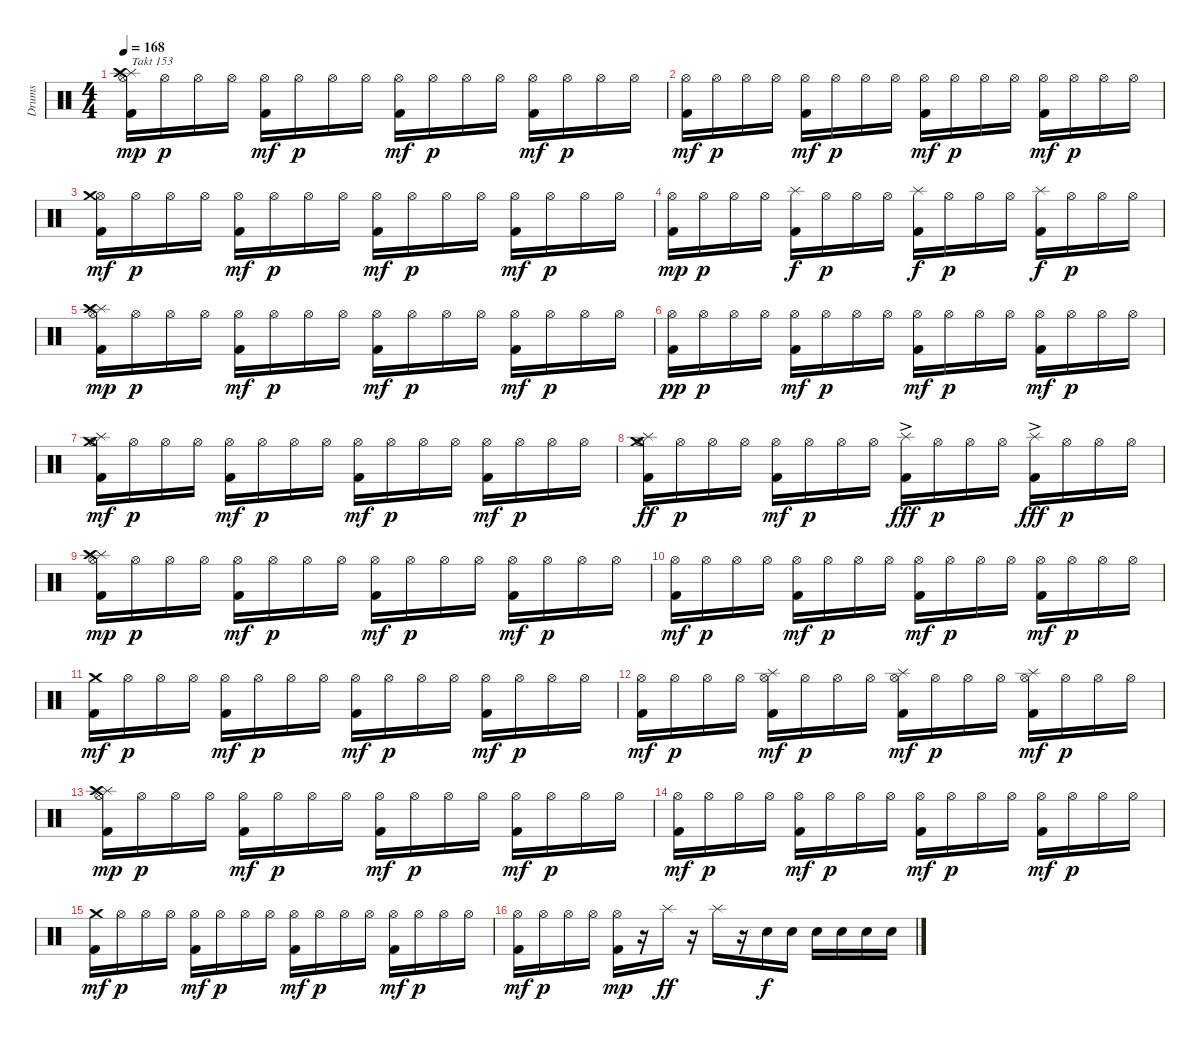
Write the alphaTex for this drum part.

\track ("Drums" "Drums") {instrument percussion}
\staff {score}
\articulation defaults
\ts (4 4)
\tempo 168
\clef neutral
\ks c
("Kick (hit) 2" "Hi-Hat (open)" "Splash (hit)" "Crash high (hit)").16{txt "Takt 153" dy mp} "Hi-Hat (open)".16{dy p} "Hi-Hat (open)".16 "Hi-Hat (open)".16 ("Kick (hit) 2" "Hi-Hat (open)").16{dy mf} "Hi-Hat (open)".16{dy p} "Hi-Hat (open)".16 "Hi-Hat (open)".16 ("Kick (hit) 2" "Hi-Hat (open)").16{dy mf} "Hi-Hat (open)".16{dy p} "Hi-Hat (open)".16 "Hi-Hat (open)".16 ("Kick (hit) 2" "Hi-Hat (open)").16{dy mf} "Hi-Hat (open)".16{dy p} "Hi-Hat (open)".16 "Hi-Hat (open)".16 |
("Kick (hit) 2" "Hi-Hat (open)").16{dy mf} "Hi-Hat (open)".16{dy p} "Hi-Hat (open)".16 "Hi-Hat (open)".16 ("Kick (hit) 2" "Hi-Hat (open)").16{dy mf} "Hi-Hat (open)".16{dy p} "Hi-Hat (open)".16 "Hi-Hat (open)".16 ("Kick (hit) 2" "Hi-Hat (open)").16{dy mf} "Hi-Hat (open)".16{dy p} "Hi-Hat (open)".16 "Hi-Hat (open)".16 ("Kick (hit) 2" "Hi-Hat (open)").16{dy mf} "Hi-Hat (open)".16{dy p} "Hi-Hat (open)".16 "Hi-Hat (open)".16 |
("Kick (hit) 2" "Hi-Hat (open)" "Crash medium (hit)").16{dy mf} "Hi-Hat (open)".16{dy p} "Hi-Hat (open)".16 "Hi-Hat (open)".16 ("Kick (hit) 2" "Hi-Hat (open)").16{dy mf} "Hi-Hat (open)".16{dy p} "Hi-Hat (open)".16 "Hi-Hat (open)".16 ("Kick (hit) 2" "Hi-Hat (open)").16{dy mf} "Hi-Hat (open)".16{dy p} "Hi-Hat (open)".16 "Hi-Hat (open)".16 ("Kick (hit) 2" "Hi-Hat (open)").16{dy mf} "Hi-Hat (open)".16{dy p} "Hi-Hat (open)".16 "Hi-Hat (open)".16 |
("Kick (hit) 2" "Hi-Hat (open)").16{dy mp} "Hi-Hat (open)".16{dy p} "Hi-Hat (open)".16 "Hi-Hat (open)".16 ("Kick (hit) 2" "Splash (hit)").16{dy f} "Hi-Hat (open)".16{dy p} "Hi-Hat (open)".16 "Hi-Hat (open)".16 ("Kick (hit) 2" "Splash (hit)").16{dy f} "Hi-Hat (open)".16{dy p} "Hi-Hat (open)".16 "Hi-Hat (open)".16 ("Kick (hit) 2" "Splash (hit)").16{dy f} "Hi-Hat (open)".16{dy p} "Hi-Hat (open)".16 "Hi-Hat (open)".16 |
("Kick (hit) 2" "Hi-Hat (open)" "Splash (hit)" "Crash high (hit)").16{dy mp} "Hi-Hat (open)".16{dy p} "Hi-Hat (open)".16 "Hi-Hat (open)".16 ("Kick (hit) 2" "Hi-Hat (open)").16{dy mf} "Hi-Hat (open)".16{dy p} "Hi-Hat (open)".16 "Hi-Hat (open)".16 ("Kick (hit) 2" "Hi-Hat (open)").16{dy mf} "Hi-Hat (open)".16{dy p} "Hi-Hat (open)".16 "Hi-Hat (open)".16 ("Kick (hit) 2" "Hi-Hat (open)").16{dy mf} "Hi-Hat (open)".16{dy p} "Hi-Hat (open)".16 "Hi-Hat (open)".16 |
("Kick (hit) 2" "Hi-Hat (open)").16{dy pp} "Hi-Hat (open)".16{dy p} "Hi-Hat (open)".16 "Hi-Hat (open)".16 ("Kick (hit) 2" "Hi-Hat (open)").16{dy mf} "Hi-Hat (open)".16{dy p} "Hi-Hat (open)".16 "Hi-Hat (open)".16 ("Kick (hit) 2" "Hi-Hat (open)").16{dy mf} "Hi-Hat (open)".16{dy p} "Hi-Hat (open)".16 "Hi-Hat (open)".16 ("Kick (hit) 2" "Hi-Hat (open)").16{dy mf} "Hi-Hat (open)".16{dy p} "Hi-Hat (open)".16 "Hi-Hat (open)".16 |
("Kick (hit) 2" "Hi-Hat (open)" "Splash (hit)" "Crash medium (hit)").16{dy mf} "Hi-Hat (open)".16{dy p} "Hi-Hat (open)".16 "Hi-Hat (open)".16 ("Kick (hit) 2" "Hi-Hat (open)").16{dy mf} "Hi-Hat (open)".16{dy p} "Hi-Hat (open)".16 "Hi-Hat (open)".16 ("Kick (hit) 2" "Hi-Hat (open)").16{dy mf} "Hi-Hat (open)".16{dy p} "Hi-Hat (open)".16 "Hi-Hat (open)".16 ("Kick (hit) 2" "Hi-Hat (open)").16{dy mf} "Hi-Hat (open)".16{dy p} "Hi-Hat (open)".16 "Hi-Hat (open)".16 |
("Kick (hit) 2" "Hi-Hat (open)" "Splash (hit)" "Crash medium (hit)").16{dy ff} "Hi-Hat (open)".16{dy p} "Hi-Hat (open)".16 "Hi-Hat (open)".16 ("Kick (hit) 2" "Hi-Hat (open)").16{dy mf} "Hi-Hat (open)".16{dy p} "Hi-Hat (open)".16 "Hi-Hat (open)".16 ("Kick (hit) 2" "Splash (hit)"{ac}).16{dy fff} "Hi-Hat (open)".16{dy p} "Hi-Hat (open)".16 "Hi-Hat (open)".16 ("Kick (hit) 2" "Splash (hit)"{ac}).16{dy fff} "Hi-Hat (open)".16{dy p} "Hi-Hat (open)".16 "Hi-Hat (open)".16 |
("Kick (hit) 2" "Hi-Hat (open)" "Splash (hit)" "Crash high (hit)").16{dy mp} "Hi-Hat (open)".16{dy p} "Hi-Hat (open)".16 "Hi-Hat (open)".16 ("Kick (hit) 2" "Hi-Hat (open)").16{dy mf} "Hi-Hat (open)".16{dy p} "Hi-Hat (open)".16 "Hi-Hat (open)".16 ("Kick (hit) 2" "Hi-Hat (open)").16{dy mf} "Hi-Hat (open)".16{dy p} "Hi-Hat (open)".16 "Hi-Hat (open)".16 ("Kick (hit) 2" "Hi-Hat (open)").16{dy mf} "Hi-Hat (open)".16{dy p} "Hi-Hat (open)".16 "Hi-Hat (open)".16 |
("Kick (hit) 2" "Hi-Hat (open)").16{dy mf} "Hi-Hat (open)".16{dy p} "Hi-Hat (open)".16 "Hi-Hat (open)".16 ("Kick (hit) 2" "Hi-Hat (open)").16{dy mf} "Hi-Hat (open)".16{dy p} "Hi-Hat (open)".16 "Hi-Hat (open)".16 ("Kick (hit) 2" "Hi-Hat (open)").16{dy mf} "Hi-Hat (open)".16{dy p} "Hi-Hat (open)".16 "Hi-Hat (open)".16 ("Kick (hit) 2" "Hi-Hat (open)").16{dy mf} "Hi-Hat (open)".16{dy p} "Hi-Hat (open)".16 "Hi-Hat (open)".16 |
("Kick (hit) 2" "Crash medium (hit)").16{dy mf} "Hi-Hat (open)".16{dy p} "Hi-Hat (open)".16 "Hi-Hat (open)".16 ("Kick (hit) 2" "Hi-Hat (open)").16{dy mf} "Hi-Hat (open)".16{dy p} "Hi-Hat (open)".16 "Hi-Hat (open)".16 ("Kick (hit) 2" "Hi-Hat (open)").16{dy mf} "Hi-Hat (open)".16{dy p} "Hi-Hat (open)".16 "Hi-Hat (open)".16 ("Kick (hit) 2" "Hi-Hat (open)").16{dy mf} "Hi-Hat (open)".16{dy p} "Hi-Hat (open)".16 "Hi-Hat (open)".16 |
("Kick (hit) 2" "Hi-Hat (open)").16{dy mf} "Hi-Hat (open)".16{dy p} "Hi-Hat (open)".16 "Hi-Hat (open)".16 ("Kick (hit) 2" "Hi-Hat (open)" "Splash (hit)").16{dy mf} "Hi-Hat (open)".16{dy p} "Hi-Hat (open)".16 "Hi-Hat (open)".16 ("Kick (hit) 2" "Hi-Hat (open)" "Splash (hit)").16{dy mf} "Hi-Hat (open)".16{dy p} "Hi-Hat (open)".16 "Hi-Hat (open)".16 ("Kick (hit) 2" "Hi-Hat (open)" "Splash (hit)").16{dy mf} "Hi-Hat (open)".16{dy p} "Hi-Hat (open)".16 "Hi-Hat (open)".16 |
("Kick (hit) 2" "Hi-Hat (open)" "Splash (hit)" "Crash high (hit)").16{dy mp} "Hi-Hat (open)".16{dy p} "Hi-Hat (open)".16 "Hi-Hat (open)".16 ("Kick (hit) 2" "Hi-Hat (open)").16{dy mf} "Hi-Hat (open)".16{dy p} "Hi-Hat (open)".16 "Hi-Hat (open)".16 ("Kick (hit) 2" "Hi-Hat (open)").16{dy mf} "Hi-Hat (open)".16{dy p} "Hi-Hat (open)".16 "Hi-Hat (open)".16 ("Kick (hit) 2" "Hi-Hat (open)").16{dy mf} "Hi-Hat (open)".16{dy p} "Hi-Hat (open)".16 "Hi-Hat (open)".16 |
("Kick (hit) 2" "Hi-Hat (open)").16{dy mf} "Hi-Hat (open)".16{dy p} "Hi-Hat (open)".16 "Hi-Hat (open)".16 ("Kick (hit) 2" "Hi-Hat (open)").16{dy mf} "Hi-Hat (open)".16{dy p} "Hi-Hat (open)".16 "Hi-Hat (open)".16 ("Kick (hit) 2" "Hi-Hat (open)").16{dy mf} "Hi-Hat (open)".16{dy p} "Hi-Hat (open)".16 "Hi-Hat (open)".16 ("Kick (hit) 2" "Hi-Hat (open)").16{dy mf} "Hi-Hat (open)".16{dy p} "Hi-Hat (open)".16 "Hi-Hat (open)".16 |
("Kick (hit) 2" "Crash medium (hit)").16{dy mf} "Hi-Hat (open)".16{dy p} "Hi-Hat (open)".16 "Hi-Hat (open)".16 ("Kick (hit) 2" "Hi-Hat (open)").16{dy mf} "Hi-Hat (open)".16{dy p} "Hi-Hat (open)".16 "Hi-Hat (open)".16 ("Kick (hit) 2" "Hi-Hat (open)").16{dy mf} "Hi-Hat (open)".16{dy p} "Hi-Hat (open)".16 "Hi-Hat (open)".16 ("Kick (hit) 2" "Hi-Hat (open)").16{dy mf} "Hi-Hat (open)".16{dy p} "Hi-Hat (open)".16 "Hi-Hat (open)".16 |
("Kick (hit) 2" "Hi-Hat (open)").16{dy mf} "Hi-Hat (open)".16{dy p} "Hi-Hat (open)".16 "Hi-Hat (open)".16 ("Kick (hit) 2" "Hi-Hat (open)").16{dy mp} r.16 "Splash (hit)".16{dy ff} r.16 "Splash (hit)".16 r.16 "Electric Snare (hit)".16{dy f} "Electric Snare (hit)".16 "Electric Snare (hit)".16 "Electric Snare (hit)".16 "Electric Snare (hit)".16 "Electric Snare (hit)".16
